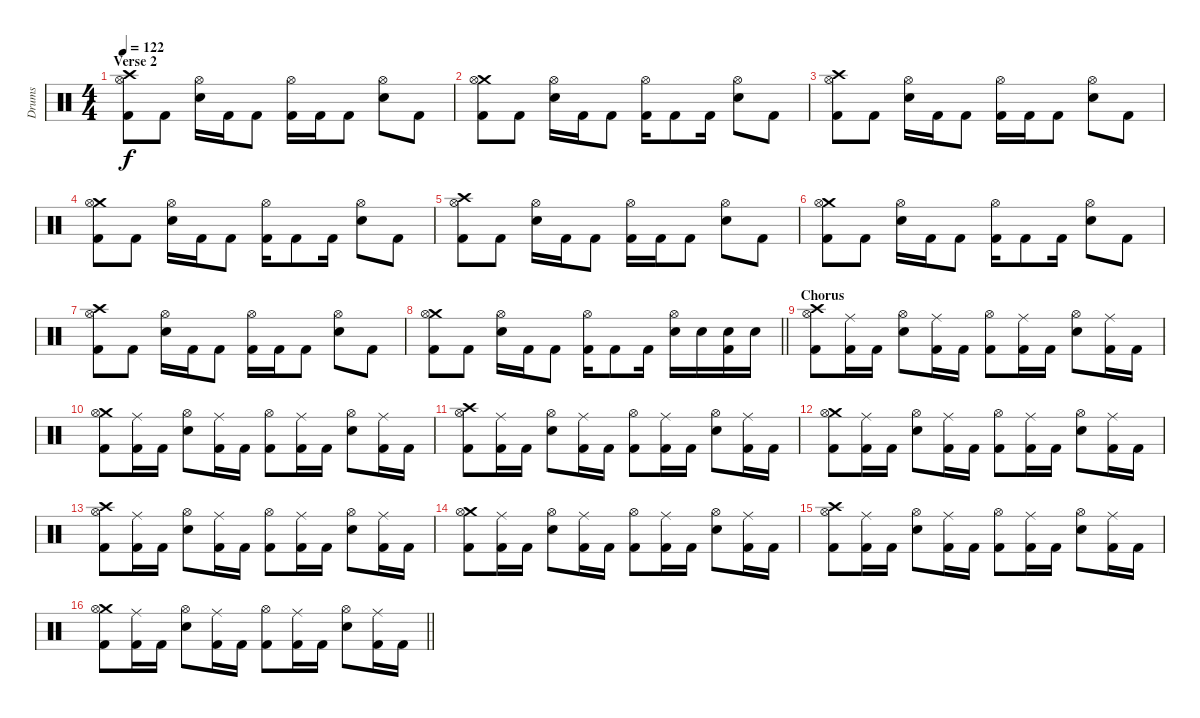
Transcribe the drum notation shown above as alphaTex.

\track ("Drums" "Drums") {instrument percussion}
\staff {score}
\articulation defaults
\ts (4 4)
\section ("" "Verse 2")
\tempo 122
\clef neutral
\ks c
("Crash high (hit)" "Hi-Hat (open)" "Kick (hit) 2").8{dy f} "Kick (hit) 2".8 ("Hi-Hat (open)" "Snare (hit) 2").16 "Kick (hit) 2".16 "Kick (hit) 2".8 ("Hi-Hat (open)" "Kick (hit) 2").16 "Kick (hit) 2".16 "Kick (hit) 2".8 ("Hi-Hat (open)" "Snare (hit) 2").8 "Kick (hit) 2".8 |
("Crash medium (hit)" "Hi-Hat (open)" "Kick (hit) 2").8 "Kick (hit) 2".8 ("Hi-Hat (open)" "Snare (hit) 2").16 "Kick (hit) 2".16 "Kick (hit) 2".8 ("Hi-Hat (open)" "Kick (hit) 2").16 "Kick (hit) 2".8 "Kick (hit) 2".16 ("Hi-Hat (open)" "Snare (hit) 2").8 "Kick (hit) 2".8 |
("Crash high (hit)" "Hi-Hat (open)" "Kick (hit) 2").8 "Kick (hit) 2".8 ("Hi-Hat (open)" "Snare (hit) 2").16 "Kick (hit) 2".16 "Kick (hit) 2".8 ("Hi-Hat (open)" "Kick (hit) 2").16 "Kick (hit) 2".16 "Kick (hit) 2".8 ("Hi-Hat (open)" "Snare (hit) 2").8 "Kick (hit) 2".8 |
("Crash medium (hit)" "Hi-Hat (open)" "Kick (hit) 2").8 "Kick (hit) 2".8 ("Hi-Hat (open)" "Snare (hit) 2").16 "Kick (hit) 2".16 "Kick (hit) 2".8 ("Hi-Hat (open)" "Kick (hit) 2").16 "Kick (hit) 2".8 "Kick (hit) 2".16 ("Hi-Hat (open)" "Snare (hit) 2").8 "Kick (hit) 2".8 |
("Crash high (hit)" "Hi-Hat (open)" "Kick (hit) 2").8 "Kick (hit) 2".8 ("Hi-Hat (open)" "Snare (hit) 2").16 "Kick (hit) 2".16 "Kick (hit) 2".8 ("Hi-Hat (open)" "Kick (hit) 2").16 "Kick (hit) 2".16 "Kick (hit) 2".8 ("Hi-Hat (open)" "Snare (hit) 2").8 "Kick (hit) 2".8 |
("Crash medium (hit)" "Hi-Hat (open)" "Kick (hit) 2").8 "Kick (hit) 2".8 ("Hi-Hat (open)" "Snare (hit) 2").16 "Kick (hit) 2".16 "Kick (hit) 2".8 ("Hi-Hat (open)" "Kick (hit) 2").16 "Kick (hit) 2".8 "Kick (hit) 2".16 ("Hi-Hat (open)" "Snare (hit) 2").8 "Kick (hit) 2".8 |
("Crash high (hit)" "Hi-Hat (open)" "Kick (hit) 2").8 "Kick (hit) 2".8 ("Hi-Hat (open)" "Snare (hit) 2").16 "Kick (hit) 2".16 "Kick (hit) 2".8 ("Hi-Hat (open)" "Kick (hit) 2").16 "Kick (hit) 2".16 "Kick (hit) 2".8 ("Hi-Hat (open)" "Snare (hit) 2").8 "Kick (hit) 2".8 |
\barLineRight lightlight
("Crash medium (hit)" "Hi-Hat (open)" "Kick (hit) 2").8 "Kick (hit) 2".8 ("Hi-Hat (open)" "Snare (hit) 2").16 "Kick (hit) 2".16 "Kick (hit) 2".8 ("Hi-Hat (open)" "Kick (hit) 2").16 "Kick (hit) 2".8 "Kick (hit) 2".16 ("Hi-Hat (open)" "Snare (hit) 2").16 "Snare (hit) 2".16 ("Snare (hit) 2" "Kick (hit) 2").16 "Snare (hit) 2".16 |
\section ("" "Chorus")
("Crash high (hit)" "Hi-Hat (open)" "Kick (hit) 2").8 ("Ride (middle)" "Kick (hit) 2").16 "Kick (hit) 2".16 ("Hi-Hat (open)" "Snare (hit) 2").8 ("Ride (middle)" "Kick (hit) 2").16 "Kick (hit) 2".16 ("Hi-Hat (open)" "Kick (hit) 2").8 ("Ride (middle)" "Kick (hit) 2").16 "Kick (hit) 2".16 ("Hi-Hat (open)" "Snare (hit) 2").8 ("Ride (middle)" "Kick (hit) 2").16 "Kick (hit) 2".16 |
("Crash medium (hit)" "Hi-Hat (open)" "Kick (hit) 2").8 ("Ride (middle)" "Kick (hit) 2").16 "Kick (hit) 2".16 ("Hi-Hat (open)" "Snare (hit) 2").8 ("Ride (middle)" "Kick (hit) 2").16 "Kick (hit) 2".16 ("Hi-Hat (open)" "Kick (hit) 2").8 ("Ride (middle)" "Kick (hit) 2").16 "Kick (hit) 2".16 ("Hi-Hat (open)" "Snare (hit) 2").8 ("Ride (middle)" "Kick (hit) 2").16 "Kick (hit) 2".16 |
("Crash high (hit)" "Hi-Hat (open)" "Kick (hit) 2").8 ("Ride (middle)" "Kick (hit) 2").16 "Kick (hit) 2".16 ("Hi-Hat (open)" "Snare (hit) 2").8 ("Ride (middle)" "Kick (hit) 2").16 "Kick (hit) 2".16 ("Hi-Hat (open)" "Kick (hit) 2").8 ("Ride (middle)" "Kick (hit) 2").16 "Kick (hit) 2".16 ("Hi-Hat (open)" "Snare (hit) 2").8 ("Ride (middle)" "Kick (hit) 2").16 "Kick (hit) 2".16 |
("Crash medium (hit)" "Hi-Hat (open)" "Kick (hit) 2").8 ("Ride (middle)" "Kick (hit) 2").16 "Kick (hit) 2".16 ("Hi-Hat (open)" "Snare (hit) 2").8 ("Ride (middle)" "Kick (hit) 2").16 "Kick (hit) 2".16 ("Hi-Hat (open)" "Kick (hit) 2").8 ("Ride (middle)" "Kick (hit) 2").16 "Kick (hit) 2".16 ("Hi-Hat (open)" "Snare (hit) 2").8 ("Ride (middle)" "Kick (hit) 2").16 "Kick (hit) 2".16 |
("Crash high (hit)" "Hi-Hat (open)" "Kick (hit) 2").8 ("Ride (middle)" "Kick (hit) 2").16 "Kick (hit) 2".16 ("Hi-Hat (open)" "Snare (hit) 2").8 ("Ride (middle)" "Kick (hit) 2").16 "Kick (hit) 2".16 ("Hi-Hat (open)" "Kick (hit) 2").8 ("Ride (middle)" "Kick (hit) 2").16 "Kick (hit) 2".16 ("Hi-Hat (open)" "Snare (hit) 2").8 ("Ride (middle)" "Kick (hit) 2").16 "Kick (hit) 2".16 |
("Crash medium (hit)" "Hi-Hat (open)" "Kick (hit) 2").8 ("Ride (middle)" "Kick (hit) 2").16 "Kick (hit) 2".16 ("Hi-Hat (open)" "Snare (hit) 2").8 ("Ride (middle)" "Kick (hit) 2").16 "Kick (hit) 2".16 ("Hi-Hat (open)" "Kick (hit) 2").8 ("Ride (middle)" "Kick (hit) 2").16 "Kick (hit) 2".16 ("Hi-Hat (open)" "Snare (hit) 2").8 ("Ride (middle)" "Kick (hit) 2").16 "Kick (hit) 2".16 |
("Crash high (hit)" "Hi-Hat (open)" "Kick (hit) 2").8 ("Ride (middle)" "Kick (hit) 2").16 "Kick (hit) 2".16 ("Hi-Hat (open)" "Snare (hit) 2").8 ("Ride (middle)" "Kick (hit) 2").16 "Kick (hit) 2".16 ("Hi-Hat (open)" "Kick (hit) 2").8 ("Ride (middle)" "Kick (hit) 2").16 "Kick (hit) 2".16 ("Hi-Hat (open)" "Snare (hit) 2").8 ("Ride (middle)" "Kick (hit) 2").16 "Kick (hit) 2".16 |
\barLineRight lightlight
("Crash medium (hit)" "Hi-Hat (open)" "Kick (hit) 2").8 ("Ride (middle)" "Kick (hit) 2").16 "Kick (hit) 2".16 ("Hi-Hat (open)" "Snare (hit) 2").8 ("Ride (middle)" "Kick (hit) 2").16 "Kick (hit) 2".16 ("Hi-Hat (open)" "Kick (hit) 2").8 ("Ride (middle)" "Kick (hit) 2").16 "Kick (hit) 2".16 ("Hi-Hat (open)" "Snare (hit) 2").8 ("Ride (middle)" "Kick (hit) 2").16 "Kick (hit) 2".16
